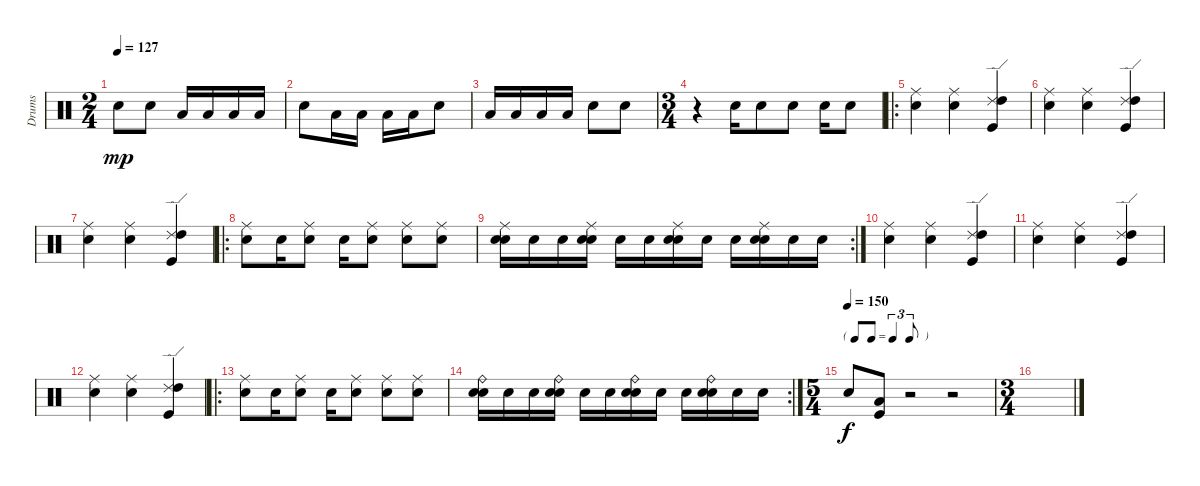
\track ("Drums" "Drums") {instrument percussion}
\staff {score}
\articulation defaults
\ts (2 4)
\tempo 127
\clef neutral
\ks c "Snare (hit) 2".8{dy mp} "Snare (hit) 2".8 "Low Tom (hit)".16 "Low Tom (hit)".16 "Low Tom (hit)".16 "Low Tom (hit)".16
|
"Snare (hit) 2".8 "Low Tom (hit)".16 "Low Tom (hit)".16 "Low Tom (hit)".16 "Low Tom (hit)".16 "Snare (hit) 2".8 |
"Low Tom (hit)".16 "Low Tom (hit)".16 "Low Tom (hit)".16 "Low Tom (hit)".16 "Snare (hit) 2".8 "Snare (hit) 2".8 |
\ts (3 4)
r.4 "Snare (hit) 2".16 "Snare (hit) 2".8 "Snare (hit) 2".8 "Snare (hit) 2".16 "Snare (hit) 2".8 |
\ro
("Ride (middle)" "Snare (hit) 2").4 ("Ride (middle)" "Snare (hit) 2").4 ("Ride (edge) 2" "High Tom (hit)" "Kick (hit)").4 |
("Ride (middle)" "Snare (hit) 2").4 ("Ride (middle)" "Snare (hit) 2").4 ("Ride (edge) 2" "High Tom (hit)" "Kick (hit)").4 |
("Ride (middle)" "Snare (hit) 2").4 ("Ride (middle)" "Snare (hit) 2").4 ("Ride (edge) 2" "High Tom (hit)" "Kick (hit)").4 |
\ro
("Ride (middle)" "Snare (hit) 2").8 "Snare (hit) 2".16 ("Ride (middle)" "Snare (hit) 2").8 "Snare (hit) 2".16 ("Ride (middle)" "Snare (hit) 2").8 ("Ride (middle)" "Snare (hit) 2").8 ("Ride (middle)" "Snare (hit) 2").8 |
\rc 2
("Ride (middle)" "Snare (hit) 2" "Snare (hit) 2").16 "Snare (hit) 2".16 "Snare (hit) 2".16 ("Ride (middle)" "Snare (hit) 2" "Snare (hit) 2").16 "Snare (hit) 2".16 "Snare (hit) 2".16 ("Ride (middle)" "Snare (hit) 2" "Snare (hit) 2").16 "Snare (hit) 2".16 "Snare (hit) 2".16 ("Ride (middle)" "Snare (hit) 2" "Snare (hit) 2").16 "Snare (hit) 2".16 "Snare (hit) 2".16 |
("Ride (middle)" "Snare (hit) 2").4 ("Ride (middle)" "Snare (hit) 2").4 ("Ride (edge) 2" "High Tom (hit)" "Kick (hit)").4 |
("Ride (middle)" "Snare (hit) 2").4 ("Ride (middle)" "Snare (hit) 2").4 ("Ride (edge) 2" "High Tom (hit)" "Kick (hit)").4 |
("Ride (middle)" "Snare (hit) 2").4 ("Ride (middle)" "Snare (hit) 2").4 ("Ride (edge) 2" "High Tom (hit)" "Kick (hit)").4 |
\ro
("Ride (middle)" "Snare (hit) 2").8 "Snare (hit) 2".16 ("Ride (middle)" "Snare (hit) 2").8 "Snare (hit) 2".16 ("Ride (middle)" "Snare (hit) 2").8 ("Ride (middle)" "Snare (hit) 2").8 ("Ride (middle)" "Snare (hit) 2").8 |
\rc 2
("Ride (bell)" "Snare (hit) 2" "Snare (hit) 2").16 "Snare (hit) 2".16 "Snare (hit) 2".16 ("Ride (bell)" "Snare (hit) 2" "Snare (hit) 2").16 "Snare (hit) 2".16 "Snare (hit) 2".16 ("Ride (bell)" "Snare (hit) 2" "Snare (hit) 2").16 "Snare (hit) 2".16 "Snare (hit) 2".16 ("Ride (bell)" "Snare (hit) 2" "Snare (hit) 2").16 "Snare (hit) 2".16 "Snare (hit) 2".16 |
\ts (5 4)
\tf triplet8th
\tempo (150)
"Snare (hit) 2".8{dy f} ("Low Floor Tom (hit)" "Kick (hit)").8 r.2 r.2 |
\ts (3 4)
